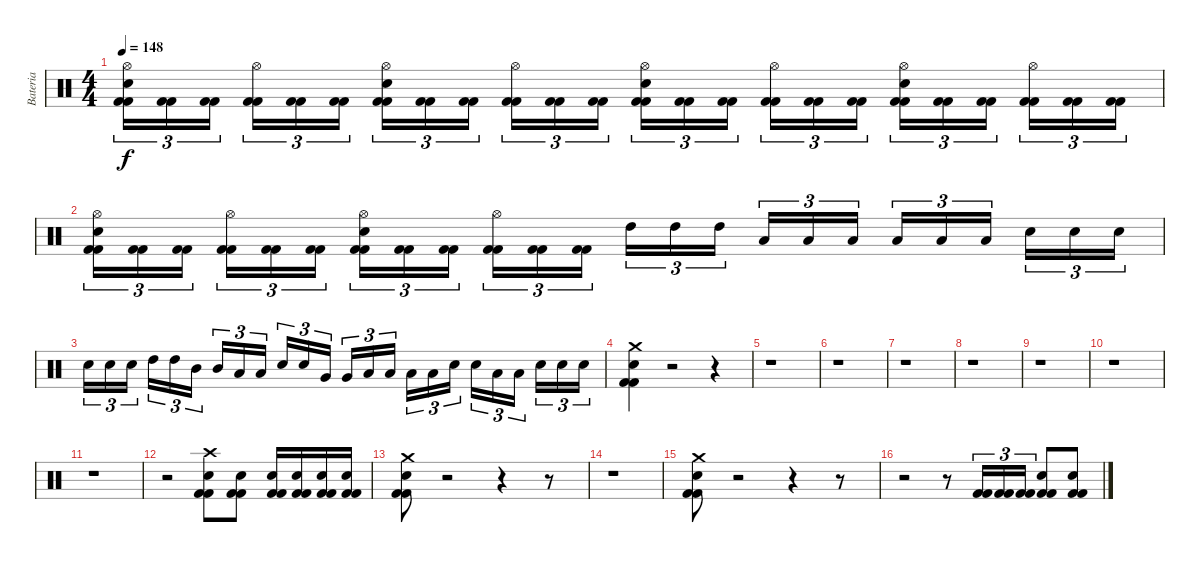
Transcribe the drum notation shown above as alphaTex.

\track ("Bateria" "Bateria") {instrument percussion}
\staff {score}
\articulation defaults
\ts (4 4)
\tempo 148
\clef neutral
\ks c
("Kick (hit) 2" "Kick (hit) 2" "Snare (hit) 2" "Hi-Hat (open)").16{tu (3 2) dy f} ("Kick (hit) 2" "Kick (hit) 2").16{tu (3 2)} ("Kick (hit) 2" "Kick (hit) 2").16{tu (3 2)} ("Kick (hit) 2" "Kick (hit) 2" "Hi-Hat (open)").16{tu (3 2)} ("Kick (hit) 2" "Kick (hit) 2").16{tu (3 2)} ("Kick (hit) 2" "Kick (hit) 2").16{tu (3 2)} ("Kick (hit) 2" "Kick (hit) 2" "Snare (hit) 2" "Hi-Hat (open)").16{tu (3 2)} ("Kick (hit) 2" "Kick (hit) 2").16{tu (3 2)} ("Kick (hit) 2" "Kick (hit) 2").16{tu (3 2)} ("Kick (hit) 2" "Kick (hit) 2" "Hi-Hat (open)").16{tu (3 2)} ("Kick (hit) 2" "Kick (hit) 2").16{tu (3 2)} ("Kick (hit) 2" "Kick (hit) 2").16{tu (3 2)} ("Kick (hit) 2" "Kick (hit) 2" "Snare (hit) 2" "Hi-Hat (open)").16{tu (3 2)} ("Kick (hit) 2" "Kick (hit) 2").16{tu (3 2)} ("Kick (hit) 2" "Kick (hit) 2").16{tu (3 2)} ("Kick (hit) 2" "Kick (hit) 2" "Hi-Hat (open)").16{tu (3 2)} ("Kick (hit) 2" "Kick (hit) 2").16{tu (3 2)} ("Kick (hit) 2" "Kick (hit) 2").16{tu (3 2)} ("Kick (hit) 2" "Kick (hit) 2" "Snare (hit) 2" "Hi-Hat (open)").16{tu (3 2)} ("Kick (hit) 2" "Kick (hit) 2").16{tu (3 2)} ("Kick (hit) 2" "Kick (hit) 2").16{tu (3 2)} ("Kick (hit) 2" "Kick (hit) 2" "Hi-Hat (open)").16{tu (3 2)} ("Kick (hit) 2" "Kick (hit) 2").16{tu (3 2)} ("Kick (hit) 2" "Kick (hit) 2").16{tu (3 2)} |
("Kick (hit) 2" "Kick (hit) 2" "Snare (hit) 2" "Hi-Hat (open)").16{tu (3 2)} ("Kick (hit) 2" "Kick (hit) 2").16{tu (3 2)} ("Kick (hit) 2" "Kick (hit) 2").16{tu (3 2)} ("Kick (hit) 2" "Kick (hit) 2" "Hi-Hat (open)").16{tu (3 2)} ("Kick (hit) 2" "Kick (hit) 2").16{tu (3 2)} ("Kick (hit) 2" "Kick (hit) 2").16{tu (3 2)} ("Kick (hit) 2" "Kick (hit) 2" "Snare (hit) 2" "Hi-Hat (open)").16{tu (3 2)} ("Kick (hit) 2" "Kick (hit) 2").16{tu (3 2)} ("Kick (hit) 2" "Kick (hit) 2").16{tu (3 2)} ("Kick (hit) 2" "Kick (hit) 2" "Hi-Hat (open)").16{tu (3 2)} ("Kick (hit) 2" "Kick (hit) 2").16{tu (3 2)} ("Kick (hit) 2" "Kick (hit) 2").16{tu (3 2)} "High Tom (hit)".16{tu (3 2)} "High Tom (hit)".16{tu (3 2)} "High Tom (hit)".16{tu (3 2)} "Low Tom (hit)".16{tu (3 2)} "Low Tom (hit)".16{tu (3 2)} "Low Tom (hit)".16{tu (3 2)} "Low Floor Tom (hit)".16{tu (3 2)} "Low Floor Tom (hit)".16{tu (3 2)} "Low Floor Tom (hit)".16{tu (3 2)} "Snare (hit) 2".16{tu (3 2)} "Snare (hit) 2".16{tu (3 2)} "Snare (hit) 2".16{tu (3 2)} |
"Snare (hit) 2".16{tu (3 2)} "Snare (hit) 2".16{tu (3 2)} "Snare (hit) 2".16{tu (3 2)} "High Tom (hit)".16{tu (3 2)} "High Tom (hit)".16{tu (3 2)} "Mid Tom (hit)".16{tu (3 2)} "Mid Tom (hit)".16{tu (3 2)} "Low Tom (hit)".16{tu (3 2)} "Low Tom (hit)".16{tu (3 2)} "Electric Snare (hit)".16{tu (3 2)} "Electric Snare (hit)".16{tu (3 2)} "Very Low Tom (hit)".16{tu (3 2)} "Very Low Tom (hit)".16{tu (3 2)} "Low Floor Tom (hit)".16{tu (3 2)} "Low Floor Tom (hit)".16{tu (3 2)} "Low Tom (hit)".16{tu (3 2)} "Low Tom (hit)".16{tu (3 2)} "Electric Snare (hit)".16{tu (3 2)} "Electric Snare (hit)".16{tu (3 2)} "Low Floor Tom (hit)".16{tu (3 2)} "Low Floor Tom (hit)".16{tu (3 2)} "Snare (hit) 2".16{tu (3 2)} "Snare (hit) 2".16{tu (3 2)} "Snare (hit) 2".16{tu (3 2)} |
("Kick (hit) 2" "Kick (hit) 2" "Snare (hit) 2" "Crash medium (hit)").4 r.2 r.4 |
r.1 |
r.1 |
r.1 |
r.1 |
r.1 |
r.1 |
r.1 |
r.2 ("Kick (hit) 2" "Kick (hit) 2" "Snare (hit) 2" "Crash high (hit)").8 ("Kick (hit) 2" "Kick (hit) 2" "Snare (hit) 2").8 ("Kick (hit) 2" "Kick (hit) 2" "Snare (hit) 2").16 ("Kick (hit) 2" "Kick (hit) 2" "Snare (hit) 2").16 ("Kick (hit) 2" "Kick (hit) 2" "Snare (hit) 2").16 ("Kick (hit) 2" "Kick (hit) 2" "Snare (hit) 2").16 |
("Kick (hit) 2" "Kick (hit) 2" "Snare (hit) 2" "Crash medium (hit)").8 r.2 r.4 r.8 |
r.1 |
("Kick (hit) 2" "Kick (hit) 2" "Snare (hit) 2" "Crash medium (hit)").8 r.2 r.4 r.8 |
r.2 r.8 ("Kick (hit) 2" "Kick (hit) 2").16{tu (3 2)} ("Kick (hit) 2" "Kick (hit) 2").16{tu (3 2)} ("Kick (hit) 2" "Kick (hit) 2").16{tu (3 2)} ("Kick (hit) 2" "Kick (hit) 2" "Snare (hit) 2").8 ("Kick (hit) 2" "Kick (hit) 2" "Snare (hit) 2").8
